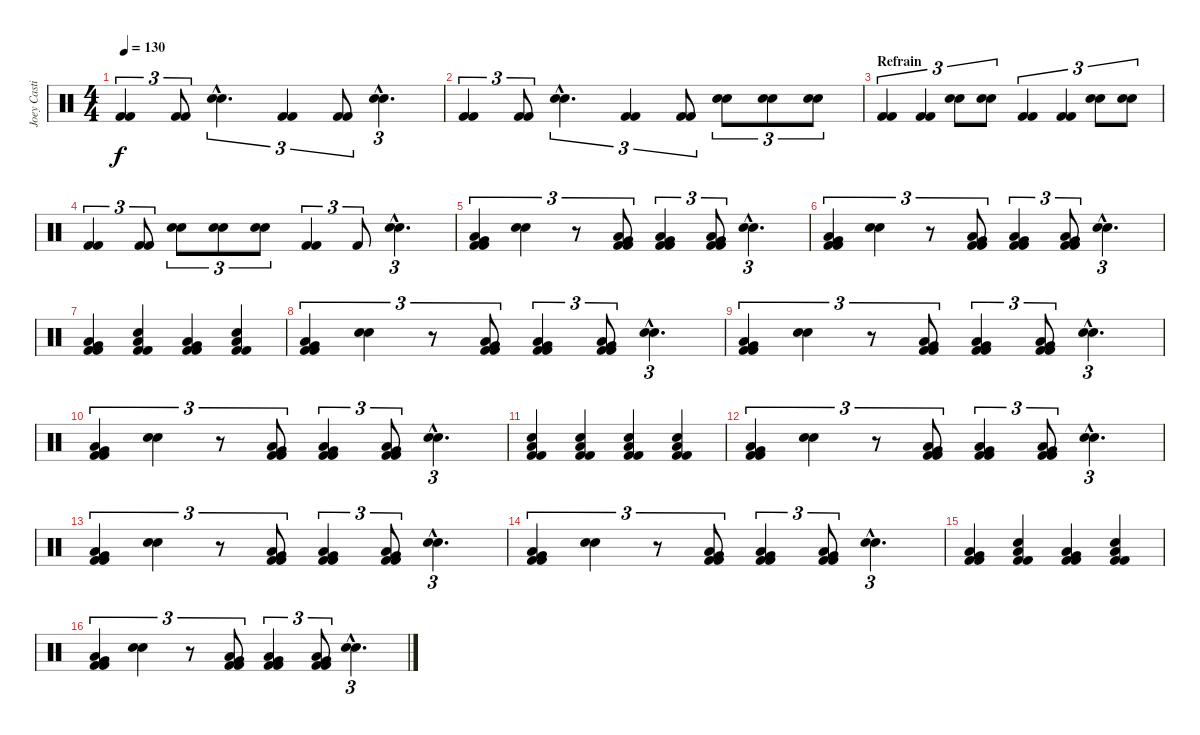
\track ("Joey Castillo" "Joey Casti") {instrument percussion}
\staff {score}
\articulation defaults
\ts (4 4)
\tempo 130
\clef neutral
\ks c
("Kick (hit) 2" "Kick (hit) 2").4{tu (3 2) dy f} ("Kick (hit) 2" "Kick (hit) 2").8{tu (3 2)} ("Electric Snare (hit)"{hac} "Electric Snare (hit)"{hac}).4{d tu (3 2)} ("Kick (hit) 2" "Kick (hit) 2").4{tu (3 2)} ("Kick (hit) 2" "Kick (hit) 2").8{tu (3 2)} ("Electric Snare (hit)"{hac} "Electric Snare (hit)"{hac}).4{d tu (3 2)} |
("Kick (hit) 2" "Kick (hit) 2").4{tu (3 2)} ("Kick (hit) 2" "Kick (hit) 2").8{tu (3 2)} ("Electric Snare (hit)"{hac} "Electric Snare (hit)"{hac}).4{d tu (3 2)} ("Kick (hit) 2" "Kick (hit) 2").4{tu (3 2)} ("Kick (hit) 2" "Kick (hit) 2").8{tu (3 2)} ("Electric Snare (hit)" "Electric Snare (hit)").8{tu (3 2)} ("Electric Snare (hit)" "Electric Snare (hit)").8{tu (3 2)} ("Electric Snare (hit)" "Electric Snare (hit)").8{tu (3 2)} |
\section ("" "Refrain")
("Kick (hit) 2" "Kick (hit) 2").4{tu (3 2)} ("Kick (hit) 2" "Kick (hit) 2").4{tu (3 2)} ("Electric Snare (hit)" "Electric Snare (hit)").8{tu (3 2)} ("Electric Snare (hit)" "Electric Snare (hit)").8{tu (3 2)} ("Kick (hit) 2" "Kick (hit) 2").4{tu (3 2)} ("Kick (hit) 2" "Kick (hit) 2").4{tu (3 2)} ("Electric Snare (hit)" "Electric Snare (hit)").8{tu (3 2)} ("Electric Snare (hit)" "Electric Snare (hit)").8{tu (3 2)} |
("Kick (hit) 2" "Kick (hit) 2").4{tu (3 2)} ("Kick (hit) 2" "Kick (hit) 2").8{tu (3 2)} ("Electric Snare (hit)" "Electric Snare (hit)").8{tu (3 2)} ("Electric Snare (hit)" "Electric Snare (hit)").8{tu (3 2)} ("Electric Snare (hit)" "Electric Snare (hit)").8{tu (3 2)} ("Kick (hit) 2" "Kick (hit) 2").4{tu (3 2)} "Kick (hit) 2".8{tu (3 2)} ("Electric Snare (hit)"{hac} "Electric Snare (hit)"{hac}).4{d tu (3 2)} |
("Low Floor Tom (hit)" "Very Low Tom (hit)" "Kick (hit) 2" "Kick (hit) 2").4{tu (3 2)} ("Electric Snare (hit)" "Electric Snare (hit)").4{tu (3 2)} r.8{tu (3 2)} ("Low Floor Tom (hit)" "Very Low Tom (hit)" "Kick (hit) 2" "Kick (hit) 2").8{tu (3 2)} ("Low Floor Tom (hit)" "Very Low Tom (hit)" "Kick (hit) 2" "Kick (hit) 2").4{tu (3 2)} ("Low Floor Tom (hit)" "Very Low Tom (hit)" "Kick (hit) 2" "Kick (hit) 2").8{tu (3 2)} ("Electric Snare (hit)"{hac} "Electric Snare (hit)"{hac}).4{d tu (3 2)} |
("Low Floor Tom (hit)" "Very Low Tom (hit)" "Kick (hit) 2" "Kick (hit) 2").4{tu (3 2)} ("Electric Snare (hit)" "Electric Snare (hit)").4{tu (3 2)} r.8{tu (3 2)} ("Low Floor Tom (hit)" "Very Low Tom (hit)" "Kick (hit) 2" "Kick (hit) 2").8{tu (3 2)} ("Low Floor Tom (hit)" "Very Low Tom (hit)" "Kick (hit) 2" "Kick (hit) 2").4{tu (3 2)} ("Low Floor Tom (hit)" "Very Low Tom (hit)" "Kick (hit) 2" "Kick (hit) 2").8{tu (3 2)} ("Electric Snare (hit)"{hac} "Electric Snare (hit)"{hac}).4{d tu (3 2)} |
("Low Floor Tom (hit)" "Very Low Tom (hit)" "Kick (hit) 2" "Kick (hit) 2").4 ("Low Floor Tom (hit)" "Electric Snare (hit)" "Kick (hit) 2" "Kick (hit) 2").4 ("Low Floor Tom (hit)" "Very Low Tom (hit)" "Kick (hit) 2" "Kick (hit) 2").4 ("Low Floor Tom (hit)" "Electric Snare (hit)" "Kick (hit) 2" "Kick (hit) 2").4 |
("Low Floor Tom (hit)" "Very Low Tom (hit)" "Kick (hit) 2" "Kick (hit) 2").4{tu (3 2)} ("Electric Snare (hit)" "Electric Snare (hit)").4{tu (3 2)} r.8{tu (3 2)} ("Low Floor Tom (hit)" "Very Low Tom (hit)" "Kick (hit) 2" "Kick (hit) 2").8{tu (3 2)} ("Low Floor Tom (hit)" "Very Low Tom (hit)" "Kick (hit) 2" "Kick (hit) 2").4{tu (3 2)} ("Low Floor Tom (hit)" "Very Low Tom (hit)" "Kick (hit) 2" "Kick (hit) 2").8{tu (3 2)} ("Electric Snare (hit)"{hac} "Electric Snare (hit)"{hac}).4{d tu (3 2)} |
("Low Floor Tom (hit)" "Very Low Tom (hit)" "Kick (hit) 2" "Kick (hit) 2").4{tu (3 2)} ("Electric Snare (hit)" "Electric Snare (hit)").4{tu (3 2)} r.8{tu (3 2)} ("Low Floor Tom (hit)" "Very Low Tom (hit)" "Kick (hit) 2" "Kick (hit) 2").8{tu (3 2)} ("Low Floor Tom (hit)" "Very Low Tom (hit)" "Kick (hit) 2" "Kick (hit) 2").4{tu (3 2)} ("Low Floor Tom (hit)" "Very Low Tom (hit)" "Kick (hit) 2" "Kick (hit) 2").8{tu (3 2)} ("Electric Snare (hit)"{hac} "Electric Snare (hit)"{hac}).4{d tu (3 2)} |
("Low Floor Tom (hit)" "Very Low Tom (hit)" "Kick (hit) 2" "Kick (hit) 2").4{tu (3 2)} ("Electric Snare (hit)" "Electric Snare (hit)").4{tu (3 2)} r.8{tu (3 2)} ("Low Floor Tom (hit)" "Very Low Tom (hit)" "Kick (hit) 2" "Kick (hit) 2").8{tu (3 2)} ("Low Floor Tom (hit)" "Very Low Tom (hit)" "Kick (hit) 2" "Kick (hit) 2").4{tu (3 2)} ("Low Floor Tom (hit)" "Very Low Tom (hit)" "Kick (hit) 2" "Kick (hit) 2").8{tu (3 2)} ("Electric Snare (hit)"{hac} "Electric Snare (hit)"{hac}).4{d tu (3 2)} |
("Low Floor Tom (hit)" "Electric Snare (hit)" "Kick (hit) 2" "Kick (hit) 2").4 ("Low Floor Tom (hit)" "Electric Snare (hit)" "Kick (hit) 2" "Kick (hit) 2").4 ("Low Floor Tom (hit)" "Electric Snare (hit)" "Kick (hit) 2" "Kick (hit) 2").4 ("Low Floor Tom (hit)" "Electric Snare (hit)" "Kick (hit) 2" "Kick (hit) 2").4 |
("Low Floor Tom (hit)" "Very Low Tom (hit)" "Kick (hit) 2" "Kick (hit) 2").4{tu (3 2)} ("Electric Snare (hit)" "Electric Snare (hit)").4{tu (3 2)} r.8{tu (3 2)} ("Low Floor Tom (hit)" "Very Low Tom (hit)" "Kick (hit) 2" "Kick (hit) 2").8{tu (3 2)} ("Low Floor Tom (hit)" "Very Low Tom (hit)" "Kick (hit) 2" "Kick (hit) 2").4{tu (3 2)} ("Low Floor Tom (hit)" "Very Low Tom (hit)" "Kick (hit) 2" "Kick (hit) 2").8{tu (3 2)} ("Electric Snare (hit)"{hac} "Electric Snare (hit)"{hac}).4{d tu (3 2)} |
("Low Floor Tom (hit)" "Very Low Tom (hit)" "Kick (hit) 2" "Kick (hit) 2").4{tu (3 2)} ("Electric Snare (hit)" "Electric Snare (hit)").4{tu (3 2)} r.8{tu (3 2)} ("Low Floor Tom (hit)" "Very Low Tom (hit)" "Kick (hit) 2" "Kick (hit) 2").8{tu (3 2)} ("Low Floor Tom (hit)" "Very Low Tom (hit)" "Kick (hit) 2" "Kick (hit) 2").4{tu (3 2)} ("Low Floor Tom (hit)" "Very Low Tom (hit)" "Kick (hit) 2" "Kick (hit) 2").8{tu (3 2)} ("Electric Snare (hit)"{hac} "Electric Snare (hit)"{hac}).4{d tu (3 2)} |
("Low Floor Tom (hit)" "Very Low Tom (hit)" "Kick (hit) 2" "Kick (hit) 2").4{tu (3 2)} ("Electric Snare (hit)" "Electric Snare (hit)").4{tu (3 2)} r.8{tu (3 2)} ("Low Floor Tom (hit)" "Very Low Tom (hit)" "Kick (hit) 2" "Kick (hit) 2").8{tu (3 2)} ("Low Floor Tom (hit)" "Very Low Tom (hit)" "Kick (hit) 2" "Kick (hit) 2").4{tu (3 2)} ("Low Floor Tom (hit)" "Very Low Tom (hit)" "Kick (hit) 2" "Kick (hit) 2").8{tu (3 2)} ("Electric Snare (hit)"{hac} "Electric Snare (hit)"{hac}).4{d tu (3 2)} |
("Low Floor Tom (hit)" "Very Low Tom (hit)" "Kick (hit) 2" "Kick (hit) 2").4 ("Low Floor Tom (hit)" "Electric Snare (hit)" "Kick (hit) 2" "Kick (hit) 2").4 ("Low Floor Tom (hit)" "Very Low Tom (hit)" "Kick (hit) 2" "Kick (hit) 2").4 ("Low Floor Tom (hit)" "Electric Snare (hit)" "Kick (hit) 2" "Kick (hit) 2").4 |
("Low Floor Tom (hit)" "Very Low Tom (hit)" "Kick (hit) 2" "Kick (hit) 2").4{tu (3 2)} ("Electric Snare (hit)" "Electric Snare (hit)").4{tu (3 2)} r.8{tu (3 2)} ("Low Floor Tom (hit)" "Very Low Tom (hit)" "Kick (hit) 2" "Kick (hit) 2").8{tu (3 2)} ("Low Floor Tom (hit)" "Very Low Tom (hit)" "Kick (hit) 2" "Kick (hit) 2").4{tu (3 2)} ("Low Floor Tom (hit)" "Very Low Tom (hit)" "Kick (hit) 2" "Kick (hit) 2").8{tu (3 2)} ("Electric Snare (hit)"{hac} "Electric Snare (hit)"{hac}).4{d tu (3 2)}
